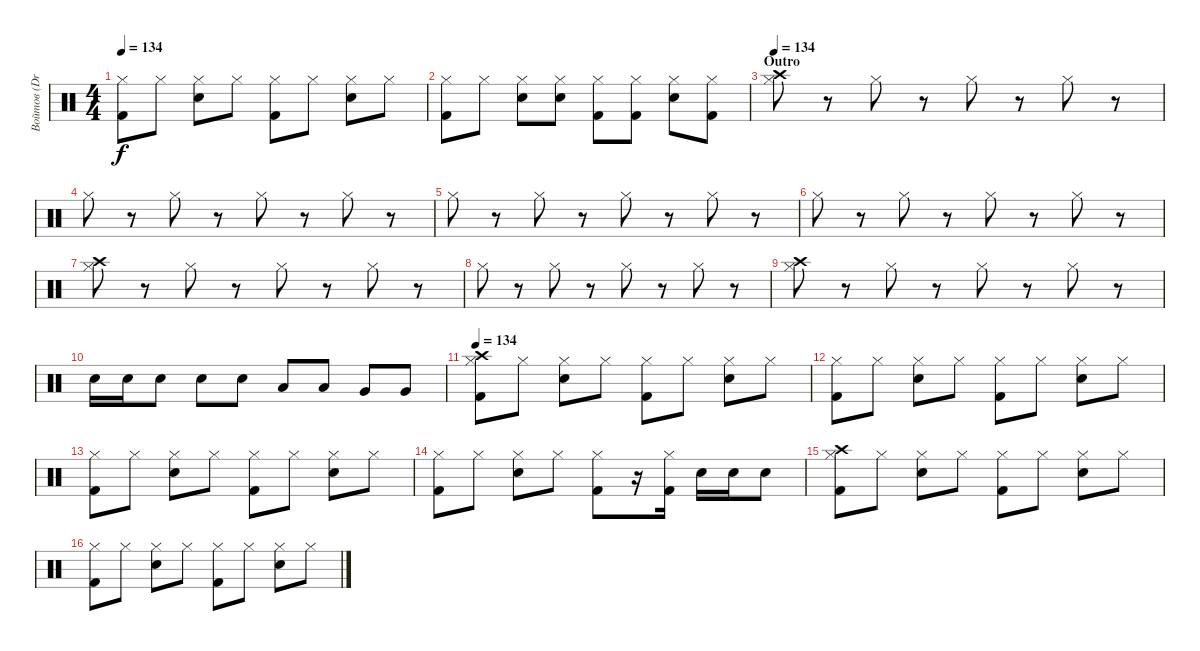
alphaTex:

\track ("Войтов (Drums)" "Войтов (Dr") {instrument percussion}
\staff {score}
\articulation defaults
\ts (4 4)
\tempo 134
\clef neutral
\ks c
("Hi-Hat (closed)" "Kick (hit) 2").8{dy f} "Hi-Hat (closed)".8 ("Hi-Hat (closed)" "Electric Snare (hit)").8 "Hi-Hat (closed)".8 ("Hi-Hat (closed)" "Kick (hit) 2").8 "Hi-Hat (closed)".8 ("Hi-Hat (closed)" "Electric Snare (hit)").8 "Hi-Hat (closed)".8 |
("Hi-Hat (closed)" "Kick (hit) 2").8 "Hi-Hat (closed)".8 ("Hi-Hat (closed)" "Electric Snare (hit)").8 ("Hi-Hat (closed)" "Electric Snare (hit)").8 ("Hi-Hat (closed)" "Kick (hit) 2").8 ("Hi-Hat (closed)" "Kick (hit) 2").8 ("Hi-Hat (closed)" "Electric Snare (hit)").8 ("Hi-Hat (closed)" "Kick (hit) 2").8 |
\section ("" "Outro")
\tempo 134
("Hi-Hat (closed)" "Crash high (hit)").8 r.8 "Hi-Hat (closed)".8 r.8 "Hi-Hat (closed)".8 r.8 "Hi-Hat (closed)".8 r.8 |
"Hi-Hat (closed)".8 r.8 "Hi-Hat (closed)".8 r.8 "Hi-Hat (closed)".8 r.8 "Hi-Hat (closed)".8 r.8 |
"Hi-Hat (closed)".8 r.8 "Hi-Hat (closed)".8 r.8 "Hi-Hat (closed)".8 r.8 "Hi-Hat (closed)".8 r.8 |
"Hi-Hat (closed)".8 r.8 "Hi-Hat (closed)".8 r.8 "Hi-Hat (closed)".8 r.8 "Hi-Hat (closed)".8 r.8 |
("Hi-Hat (closed)" "Crash high (hit)").8 r.8 "Hi-Hat (closed)".8 r.8 "Hi-Hat (closed)".8 r.8 "Hi-Hat (closed)".8 r.8 |
"Hi-Hat (closed)".8 r.8 "Hi-Hat (closed)".8 r.8 "Hi-Hat (closed)".8 r.8 "Hi-Hat (closed)".8 r.8 |
("Hi-Hat (closed)" "Crash high (hit)").8 r.8 "Hi-Hat (closed)".8 r.8 "Hi-Hat (closed)".8 r.8 "Hi-Hat (closed)".8 r.8 |
"Electric Snare (hit)".16 "Electric Snare (hit)".16 "Electric Snare (hit)".8 "Electric Snare (hit)".8 "Electric Snare (hit)".8 "Low Tom (hit)".8 "Low Tom (hit)".8 "Very Low Tom (hit)".8 "Very Low Tom (hit)".8 |
\tempo 134
("Hi-Hat (closed)" "Kick (hit) 2" "Crash high (hit)").8 "Hi-Hat (closed)".8 ("Hi-Hat (closed)" "Electric Snare (hit)").8 "Hi-Hat (closed)".8 ("Hi-Hat (closed)" "Kick (hit) 2").8 "Hi-Hat (closed)".8 ("Hi-Hat (closed)" "Electric Snare (hit)").8 "Hi-Hat (closed)".8 |
("Hi-Hat (closed)" "Kick (hit) 2").8 "Hi-Hat (closed)".8 ("Hi-Hat (closed)" "Electric Snare (hit)").8 "Hi-Hat (closed)".8 ("Hi-Hat (closed)" "Kick (hit) 2").8 "Hi-Hat (closed)".8 ("Hi-Hat (closed)" "Electric Snare (hit)").8 "Hi-Hat (closed)".8 |
("Hi-Hat (closed)" "Kick (hit) 2").8 "Hi-Hat (closed)".8 ("Hi-Hat (closed)" "Electric Snare (hit)").8 "Hi-Hat (closed)".8 ("Hi-Hat (closed)" "Kick (hit) 2").8 "Hi-Hat (closed)".8 ("Hi-Hat (closed)" "Electric Snare (hit)").8 "Hi-Hat (closed)".8 |
("Hi-Hat (closed)" "Kick (hit) 2").8 "Hi-Hat (closed)".8 ("Hi-Hat (closed)" "Electric Snare (hit)").8 "Hi-Hat (closed)".8 ("Hi-Hat (closed)" "Kick (hit) 2").8 r.16 ("Hi-Hat (closed)" "Kick (hit) 2").16 "Electric Snare (hit)".16 "Electric Snare (hit)".16 "Electric Snare (hit)".8 |
("Hi-Hat (closed)" "Kick (hit) 2" "Crash high (hit)").8 "Hi-Hat (closed)".8 ("Hi-Hat (closed)" "Electric Snare (hit)").8 "Hi-Hat (closed)".8 ("Hi-Hat (closed)" "Kick (hit) 2").8 "Hi-Hat (closed)".8 ("Hi-Hat (closed)" "Electric Snare (hit)").8 "Hi-Hat (closed)".8 |
("Hi-Hat (closed)" "Kick (hit) 2").8 "Hi-Hat (closed)".8 ("Hi-Hat (closed)" "Electric Snare (hit)").8 "Hi-Hat (closed)".8 ("Hi-Hat (closed)" "Kick (hit) 2").8 "Hi-Hat (closed)".8 ("Hi-Hat (closed)" "Electric Snare (hit)").8 "Hi-Hat (closed)".8
